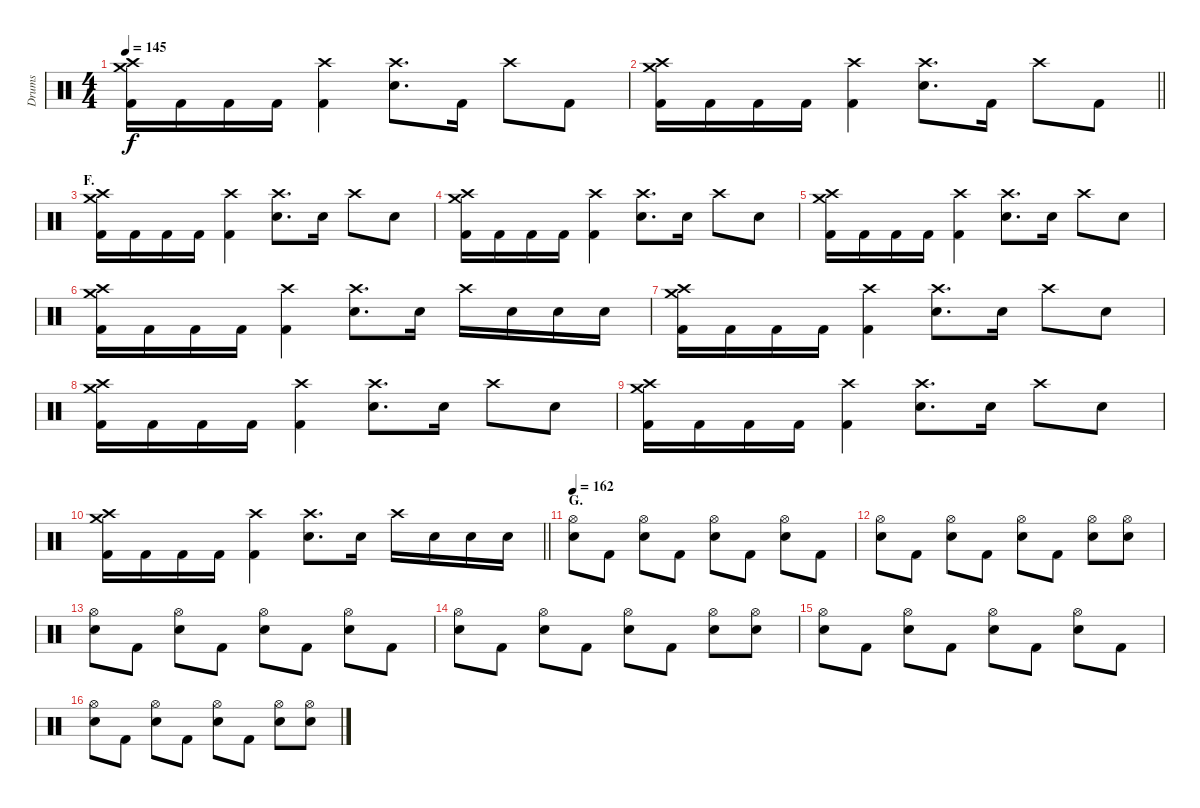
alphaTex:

\track ("Drums" "Drums") {instrument percussion}
\staff {score}
\articulation defaults
\ts (4 4)
\tempo 145
\clef neutral
\ks c
("Crash medium (hit)" "Crash high (hit)" "Kick (hit) 2").16{dy f} "Kick (hit) 2".16 "Kick (hit) 2".16 "Kick (hit) 2".16 ("Crash high (hit)" "Kick (hit) 2").4 ("Crash high (hit)" "Electric Snare (hit)").8{d} "Kick (hit) 2".16 "Crash high (hit)".8 "Kick (hit) 2".8 |
\barLineRight lightlight
("Crash medium (hit)" "Crash high (hit)" "Kick (hit) 2").16 "Kick (hit) 2".16 "Kick (hit) 2".16 "Kick (hit) 2".16 ("Crash high (hit)" "Kick (hit) 2").4 ("Crash high (hit)" "Electric Snare (hit)").8{d} "Kick (hit) 2".16 "Crash high (hit)".8 "Kick (hit) 2".8 |
\section ("" "F.")
("Crash medium (hit)" "Crash high (hit)" "Kick (hit) 2").16 "Kick (hit) 2".16 "Kick (hit) 2".16 "Kick (hit) 2".16 ("Crash high (hit)" "Kick (hit) 2").4 ("Crash high (hit)" "Electric Snare (hit)").8{d} "Electric Snare (hit)".16 "Crash high (hit)".8 "Electric Snare (hit)".8 |
("Crash medium (hit)" "Crash high (hit)" "Kick (hit) 2").16 "Kick (hit) 2".16 "Kick (hit) 2".16 "Kick (hit) 2".16 ("Crash high (hit)" "Kick (hit) 2").4 ("Crash high (hit)" "Electric Snare (hit)").8{d} "Electric Snare (hit)".16 "Crash high (hit)".8 "Electric Snare (hit)".8 |
("Crash medium (hit)" "Crash high (hit)" "Kick (hit) 2").16 "Kick (hit) 2".16 "Kick (hit) 2".16 "Kick (hit) 2".16 ("Crash high (hit)" "Kick (hit) 2").4 ("Crash high (hit)" "Electric Snare (hit)").8{d} "Electric Snare (hit)".16 "Crash high (hit)".8 "Electric Snare (hit)".8 |
("Crash medium (hit)" "Crash high (hit)" "Kick (hit) 2").16 "Kick (hit) 2".16 "Kick (hit) 2".16 "Kick (hit) 2".16 ("Crash high (hit)" "Kick (hit) 2").4 ("Crash high (hit)" "Electric Snare (hit)").8{d} "Electric Snare (hit)".16 "Crash high (hit)".16 "Electric Snare (hit)".16 "Electric Snare (hit)".16 "Electric Snare (hit)".16 |
("Crash medium (hit)" "Crash high (hit)" "Kick (hit) 2").16 "Kick (hit) 2".16 "Kick (hit) 2".16 "Kick (hit) 2".16 ("Crash high (hit)" "Kick (hit) 2").4 ("Crash high (hit)" "Electric Snare (hit)").8{d} "Electric Snare (hit)".16 "Crash high (hit)".8 "Electric Snare (hit)".8 |
("Crash medium (hit)" "Crash high (hit)" "Kick (hit) 2").16 "Kick (hit) 2".16 "Kick (hit) 2".16 "Kick (hit) 2".16 ("Crash high (hit)" "Kick (hit) 2").4 ("Crash high (hit)" "Electric Snare (hit)").8{d} "Electric Snare (hit)".16 "Crash high (hit)".8 "Electric Snare (hit)".8 |
("Crash medium (hit)" "Crash high (hit)" "Kick (hit) 2").16 "Kick (hit) 2".16 "Kick (hit) 2".16 "Kick (hit) 2".16 ("Crash high (hit)" "Kick (hit) 2").4 ("Crash high (hit)" "Electric Snare (hit)").8{d} "Electric Snare (hit)".16 "Crash high (hit)".8 "Electric Snare (hit)".8 |
\barLineRight lightlight
("Crash medium (hit)" "Crash high (hit)" "Kick (hit) 2").16 "Kick (hit) 2".16 "Kick (hit) 2".16 "Kick (hit) 2".16 ("Crash high (hit)" "Kick (hit) 2").4 ("Crash high (hit)" "Electric Snare (hit)").8{d} "Electric Snare (hit)".16 "Crash high (hit)".16 "Electric Snare (hit)".16 "Electric Snare (hit)".16 "Electric Snare (hit)".16 |
\section ("" "G.")
\tempo 162
("Hi-Hat (open)" "Electric Snare (hit)").8 "Kick (hit) 2".8 ("Hi-Hat (open)" "Electric Snare (hit)").8 "Kick (hit) 2".8 ("Hi-Hat (open)" "Electric Snare (hit)").8 "Kick (hit) 2".8 ("Hi-Hat (open)" "Electric Snare (hit)").8 "Kick (hit) 2".8 |
("Hi-Hat (open)" "Electric Snare (hit)").8 "Kick (hit) 2".8 ("Hi-Hat (open)" "Electric Snare (hit)").8 "Kick (hit) 2".8 ("Hi-Hat (open)" "Electric Snare (hit)").8 "Kick (hit) 2".8 ("Hi-Hat (open)" "Electric Snare (hit)").8 ("Hi-Hat (open)" "Electric Snare (hit)").8 |
("Hi-Hat (open)" "Electric Snare (hit)").8 "Kick (hit) 2".8 ("Hi-Hat (open)" "Electric Snare (hit)").8 "Kick (hit) 2".8 ("Hi-Hat (open)" "Electric Snare (hit)").8 "Kick (hit) 2".8 ("Hi-Hat (open)" "Electric Snare (hit)").8 "Kick (hit) 2".8 |
("Hi-Hat (open)" "Electric Snare (hit)").8 "Kick (hit) 2".8 ("Hi-Hat (open)" "Electric Snare (hit)").8 "Kick (hit) 2".8 ("Hi-Hat (open)" "Electric Snare (hit)").8 "Kick (hit) 2".8 ("Hi-Hat (open)" "Electric Snare (hit)").8 ("Hi-Hat (open)" "Electric Snare (hit)").8 |
("Hi-Hat (open)" "Electric Snare (hit)").8 "Kick (hit) 2".8 ("Hi-Hat (open)" "Electric Snare (hit)").8 "Kick (hit) 2".8 ("Hi-Hat (open)" "Electric Snare (hit)").8 "Kick (hit) 2".8 ("Hi-Hat (open)" "Electric Snare (hit)").8 "Kick (hit) 2".8 |
("Hi-Hat (open)" "Electric Snare (hit)").8 "Kick (hit) 2".8 ("Hi-Hat (open)" "Electric Snare (hit)").8 "Kick (hit) 2".8 ("Hi-Hat (open)" "Electric Snare (hit)").8 "Kick (hit) 2".8 ("Hi-Hat (open)" "Electric Snare (hit)").8 ("Hi-Hat (open)" "Electric Snare (hit)").8
